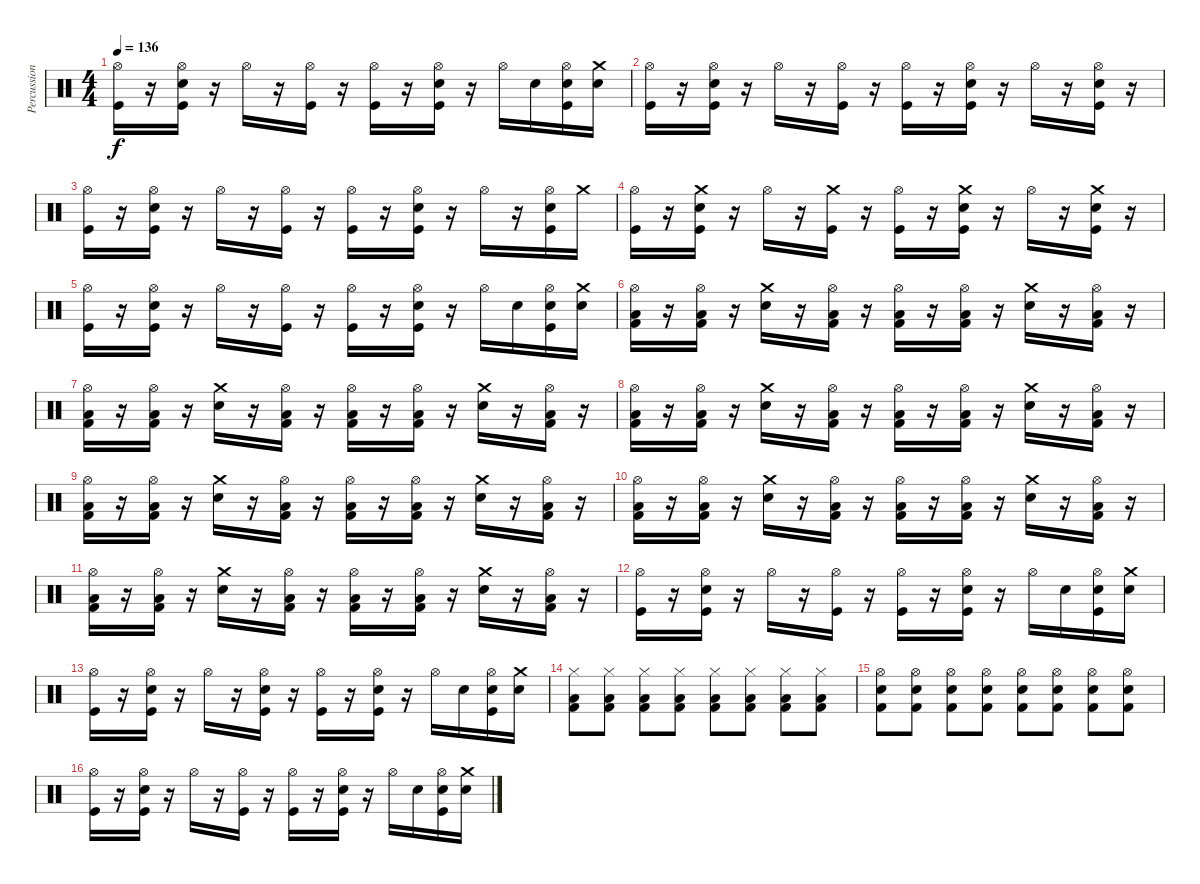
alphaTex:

\track ("Percussion" "Percussion") {instrument percussion}
\staff {score}
\articulation defaults
\ts (4 4)
\tempo 136
\clef neutral
\ks c
("Kick (hit)" "Hi-Hat (open)").16{dy f} r.16 ("Kick (hit)" "Snare (hit) 2" "Hi-Hat (open)").16 r.16 "Hi-Hat (open)".16 r.16 ("Kick (hit)" "Hi-Hat (open)").16 r.16 ("Kick (hit)" "Hi-Hat (open)").16 r.16 ("Kick (hit)" "Snare (hit) 2" "Hi-Hat (open)").16 r.16 "Hi-Hat (open)".16 "Electric Snare (hit)".16 ("Kick (hit)" "Snare (hit) 2" "Hi-Hat (open)").16 ("Crash medium (hit)" "Electric Snare (hit)").16 |
("Kick (hit)" "Hi-Hat (open)").16 r.16 ("Kick (hit)" "Snare (hit) 2" "Hi-Hat (open)").16 r.16 "Hi-Hat (open)".16 r.16 ("Kick (hit)" "Hi-Hat (open)").16 r.16 ("Kick (hit)" "Hi-Hat (open)").16 r.16 ("Kick (hit)" "Snare (hit) 2" "Hi-Hat (open)").16 r.16 "Hi-Hat (open)".16 r.16 ("Kick (hit)" "Snare (hit) 2" "Hi-Hat (open)").16 r.16 |
("Kick (hit)" "Hi-Hat (open)").16 r.16 ("Kick (hit)" "Snare (hit) 2" "Hi-Hat (open)").16 r.16 "Hi-Hat (open)".16 r.16 ("Kick (hit)" "Hi-Hat (open)").16 r.16 ("Kick (hit)" "Hi-Hat (open)").16 r.16 ("Kick (hit)" "Snare (hit) 2" "Hi-Hat (open)").16 r.16 "Hi-Hat (open)".16 r.16 ("Kick (hit)" "Snare (hit) 2" "Hi-Hat (open)").16 "Crash medium (hit)".16 |
("Kick (hit)" "Hi-Hat (open)").16 r.16 ("Kick (hit)" "Snare (hit) 2" "Crash medium (hit)").16 r.16 "Hi-Hat (open)".16 r.16 ("Kick (hit)" "Crash medium (hit)").16 r.16 ("Kick (hit)" "Hi-Hat (open)").16 r.16 ("Kick (hit)" "Snare (hit) 2" "Crash medium (hit)").16 r.16 "Hi-Hat (open)".16 r.16 ("Kick (hit)" "Snare (hit) 2" "Crash medium (hit)").16 r.16 |
("Kick (hit)" "Hi-Hat (open)").16 r.16 ("Kick (hit)" "Snare (hit) 2" "Hi-Hat (open)").16 r.16 "Hi-Hat (open)".16 r.16 ("Kick (hit)" "Hi-Hat (open)").16 r.16 ("Kick (hit)" "Hi-Hat (open)").16 r.16 ("Kick (hit)" "Snare (hit) 2" "Hi-Hat (open)").16 r.16 "Hi-Hat (open)".16 "Electric Snare (hit)".16 ("Kick (hit)" "Snare (hit) 2" "Hi-Hat (open)").16 ("Crash medium (hit)" "Electric Snare (hit)").16 |
("Kick (hit) 2" "Low Floor Tom (hit)" "Hi-Hat (open)").16 r.16 ("Kick (hit) 2" "Low Floor Tom (hit)" "Hi-Hat (open)").16 r.16 ("Snare (hit) 2" "Crash medium (hit)").16 r.16 ("Kick (hit) 2" "Low Floor Tom (hit)" "Hi-Hat (open)").16 r.16 ("Kick (hit) 2" "Low Floor Tom (hit)" "Hi-Hat (open)").16 r.16 ("Kick (hit) 2" "Low Floor Tom (hit)" "Hi-Hat (open)").16 r.16 ("Snare (hit) 2" "Crash medium (hit)").16 r.16 ("Kick (hit) 2" "Low Floor Tom (hit)" "Hi-Hat (open)").16 r.16 |
("Kick (hit) 2" "Low Floor Tom (hit)" "Hi-Hat (open)").16 r.16 ("Kick (hit) 2" "Low Floor Tom (hit)" "Hi-Hat (open)").16 r.16 ("Snare (hit) 2" "Crash medium (hit)").16 r.16 ("Kick (hit) 2" "Low Floor Tom (hit)" "Hi-Hat (open)").16 r.16 ("Kick (hit) 2" "Low Floor Tom (hit)" "Hi-Hat (open)").16 r.16 ("Kick (hit) 2" "Low Floor Tom (hit)" "Hi-Hat (open)").16 r.16 ("Snare (hit) 2" "Crash medium (hit)").16 r.16 ("Kick (hit) 2" "Low Floor Tom (hit)" "Hi-Hat (open)").16 r.16 |
("Kick (hit) 2" "Low Floor Tom (hit)" "Hi-Hat (open)").16 r.16 ("Kick (hit) 2" "Low Floor Tom (hit)" "Hi-Hat (open)").16 r.16 ("Snare (hit) 2" "Crash medium (hit)").16 r.16 ("Kick (hit) 2" "Low Floor Tom (hit)" "Hi-Hat (open)").16 r.16 ("Kick (hit) 2" "Low Floor Tom (hit)" "Hi-Hat (open)").16 r.16 ("Kick (hit) 2" "Low Floor Tom (hit)" "Hi-Hat (open)").16 r.16 ("Snare (hit) 2" "Crash medium (hit)").16 r.16 ("Kick (hit) 2" "Low Floor Tom (hit)" "Hi-Hat (open)").16 r.16 |
("Kick (hit) 2" "Low Floor Tom (hit)" "Hi-Hat (open)").16 r.16 ("Kick (hit) 2" "Low Floor Tom (hit)" "Hi-Hat (open)").16 r.16 ("Snare (hit) 2" "Crash medium (hit)").16 r.16 ("Kick (hit) 2" "Low Floor Tom (hit)" "Hi-Hat (open)").16 r.16 ("Kick (hit) 2" "Low Floor Tom (hit)" "Hi-Hat (open)").16 r.16 ("Kick (hit) 2" "Low Floor Tom (hit)" "Hi-Hat (open)").16 r.16 ("Snare (hit) 2" "Crash medium (hit)").16 r.16 ("Kick (hit) 2" "Low Floor Tom (hit)" "Hi-Hat (open)").16 r.16 |
("Kick (hit) 2" "Low Floor Tom (hit)" "Hi-Hat (open)").16 r.16 ("Kick (hit) 2" "Low Floor Tom (hit)" "Hi-Hat (open)").16 r.16 ("Snare (hit) 2" "Crash medium (hit)").16 r.16 ("Kick (hit) 2" "Low Floor Tom (hit)" "Hi-Hat (open)").16 r.16 ("Kick (hit) 2" "Low Floor Tom (hit)" "Hi-Hat (open)").16 r.16 ("Kick (hit) 2" "Low Floor Tom (hit)" "Hi-Hat (open)").16 r.16 ("Snare (hit) 2" "Crash medium (hit)").16 r.16 ("Kick (hit) 2" "Low Floor Tom (hit)" "Hi-Hat (open)").16 r.16 |
("Kick (hit) 2" "Low Floor Tom (hit)" "Hi-Hat (open)").16 r.16 ("Kick (hit) 2" "Low Floor Tom (hit)" "Hi-Hat (open)").16 r.16 ("Snare (hit) 2" "Crash medium (hit)").16 r.16 ("Kick (hit) 2" "Low Floor Tom (hit)" "Hi-Hat (open)").16 r.16 ("Kick (hit) 2" "Low Floor Tom (hit)" "Hi-Hat (open)").16 r.16 ("Kick (hit) 2" "Low Floor Tom (hit)" "Hi-Hat (open)").16 r.16 ("Snare (hit) 2" "Crash medium (hit)").16 r.16 ("Kick (hit) 2" "Low Floor Tom (hit)" "Hi-Hat (open)").16 r.16 |
("Kick (hit)" "Hi-Hat (open)").16 r.16 ("Kick (hit)" "Snare (hit) 2" "Hi-Hat (open)").16 r.16 "Hi-Hat (open)".16 r.16 ("Kick (hit)" "Hi-Hat (open)").16 r.16 ("Kick (hit)" "Hi-Hat (open)").16 r.16 ("Kick (hit)" "Snare (hit) 2" "Hi-Hat (open)").16 r.16 "Hi-Hat (open)".16 "Electric Snare (hit)".16 ("Kick (hit)" "Snare (hit) 2" "Hi-Hat (open)").16 ("Crash medium (hit)" "Electric Snare (hit)").16 |
("Kick (hit)" "Hi-Hat (open)").16 r.16 ("Kick (hit)" "Snare (hit) 2" "Hi-Hat (open)").16 r.16 "Hi-Hat (open)".16 r.16 ("Kick (hit)" "Electric Snare (hit)" "Hi-Hat (open)").16 r.16 ("Kick (hit)" "Hi-Hat (open)").16 r.16 ("Kick (hit)" "Snare (hit) 2" "Hi-Hat (open)").16 r.16 "Hi-Hat (open)".16 "Electric Snare (hit)".16 ("Kick (hit)" "Snare (hit) 2" "Hi-Hat (open)").16 ("Crash medium (hit)" "Electric Snare (hit)").16 |
("Hi-Hat (closed)" "Low Floor Tom (hit)" "Kick (hit) 2").8 ("Hi-Hat (closed)" "Low Floor Tom (hit)" "Kick (hit) 2").8 ("Hi-Hat (closed)" "Low Floor Tom (hit)" "Kick (hit) 2").8 ("Hi-Hat (closed)" "Low Floor Tom (hit)" "Kick (hit) 2").8 ("Hi-Hat (closed)" "Low Floor Tom (hit)" "Kick (hit) 2").8 ("Hi-Hat (closed)" "Low Floor Tom (hit)" "Kick (hit) 2").8 ("Hi-Hat (closed)" "Low Floor Tom (hit)" "Kick (hit) 2").8 ("Hi-Hat (closed)" "Low Floor Tom (hit)" "Kick (hit) 2").8 |
("Snare (hit) 2" "Hi-Hat (open)" "Kick (hit) 2").8 ("Snare (hit) 2" "Hi-Hat (open)" "Kick (hit) 2").8 ("Snare (hit) 2" "Hi-Hat (open)" "Kick (hit) 2").8 ("Snare (hit) 2" "Hi-Hat (open)" "Kick (hit) 2").8 ("Snare (hit) 2" "Hi-Hat (open)" "Kick (hit) 2").8 ("Snare (hit) 2" "Hi-Hat (open)" "Kick (hit) 2").8 ("Snare (hit) 2" "Hi-Hat (open)" "Kick (hit) 2").8 ("Snare (hit) 2" "Hi-Hat (open)" "Kick (hit) 2").8 |
("Kick (hit)" "Hi-Hat (open)").16 r.16 ("Kick (hit)" "Snare (hit) 2" "Hi-Hat (open)").16 r.16 "Hi-Hat (open)".16 r.16 ("Kick (hit)" "Hi-Hat (open)").16 r.16 ("Kick (hit)" "Hi-Hat (open)").16 r.16 ("Kick (hit)" "Snare (hit) 2" "Hi-Hat (open)").16 r.16 "Hi-Hat (open)".16 "Electric Snare (hit)".16 ("Kick (hit)" "Snare (hit) 2" "Hi-Hat (open)").16 ("Crash medium (hit)" "Electric Snare (hit)").16
